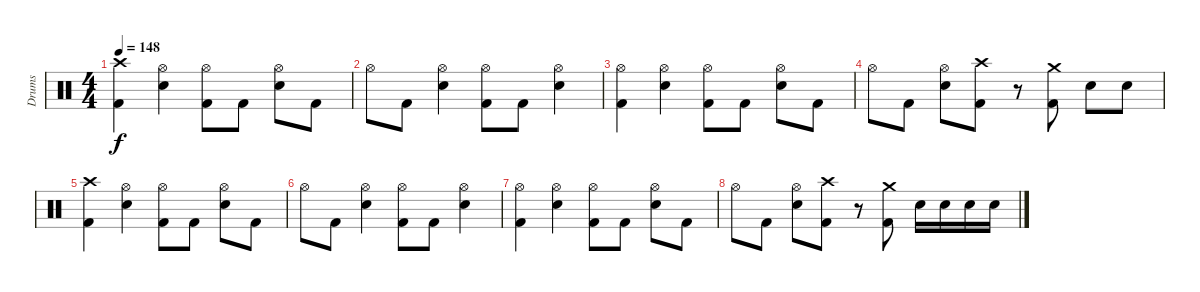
\track ("Drums" "Drums") {instrument percussion}
\staff {score}
\articulation defaults
\ts (4 4)
\tempo 148
\clef neutral
\ks c
("Crash high (hit)" "Kick (hit) 2").4{dy f} ("Hi-Hat (open)" "Snare (hit) 2").4 ("Hi-Hat (open)" "Kick (hit) 2").8 "Kick (hit) 2".8 ("Hi-Hat (open)" "Snare (hit) 2").8 "Kick (hit) 2".8 |
"Hi-Hat (open)".8 "Kick (hit) 2".8 ("Hi-Hat (open)" "Snare (hit) 2").4 ("Hi-Hat (open)" "Kick (hit) 2").8 "Kick (hit) 2".8 ("Hi-Hat (open)" "Snare (hit) 2").4 |
("Hi-Hat (open)" "Kick (hit) 2").4 ("Hi-Hat (open)" "Snare (hit) 2").4 ("Hi-Hat (open)" "Kick (hit) 2").8 "Kick (hit) 2".8 ("Hi-Hat (open)" "Snare (hit) 2").8 "Kick (hit) 2".8 |
"Hi-Hat (open)".8 "Kick (hit) 2".8 ("Hi-Hat (open)" "Snare (hit) 2").8 ("Crash high (hit)" "Kick (hit) 2").8 r.8 ("Crash medium (hit)" "Kick (hit) 2").8 "Snare (hit) 2".8 "Snare (hit) 2".8 |
("Crash high (hit)" "Kick (hit) 2").4 ("Hi-Hat (open)" "Snare (hit) 2").4 ("Hi-Hat (open)" "Kick (hit) 2").8 "Kick (hit) 2".8 ("Hi-Hat (open)" "Snare (hit) 2").8 "Kick (hit) 2".8 |
"Hi-Hat (open)".8 "Kick (hit) 2".8 ("Hi-Hat (open)" "Snare (hit) 2").4 ("Hi-Hat (open)" "Kick (hit) 2").8 "Kick (hit) 2".8 ("Hi-Hat (open)" "Snare (hit) 2").4 |
("Hi-Hat (open)" "Kick (hit) 2").4 ("Hi-Hat (open)" "Snare (hit) 2").4 ("Hi-Hat (open)" "Kick (hit) 2").8 "Kick (hit) 2".8 ("Hi-Hat (open)" "Snare (hit) 2").8 "Kick (hit) 2".8 |
"Hi-Hat (open)".8 "Kick (hit) 2".8 ("Hi-Hat (open)" "Snare (hit) 2").8 ("Crash high (hit)" "Kick (hit) 2").8 r.8 ("Crash medium (hit)" "Kick (hit) 2").8 "Snare (hit) 2".16 "Snare (hit) 2".16 "Snare (hit) 2".16 "Snare (hit) 2".16
